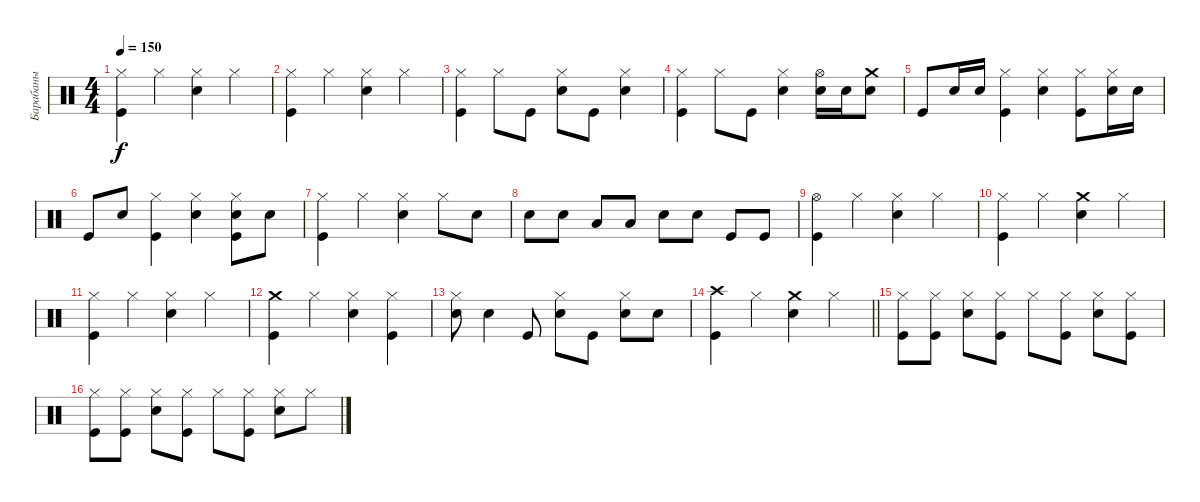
\track ("Барабаны" "Барабаны") {instrument percussion}
\staff {score}
\articulation defaults
\ts (4 4)
\tempo 150
\clef neutral
\ks c
("Hi-Hat (closed)" "Kick (hit)").4{dy f} "Hi-Hat (closed)".4 ("Hi-Hat (closed)" "Electric Snare (hit)").4 "Hi-Hat (closed)".4 |
("Hi-Hat (closed)" "Kick (hit)").4 "Hi-Hat (closed)".4 ("Hi-Hat (closed)" "Electric Snare (hit)").4 "Hi-Hat (closed)".4 |
("Hi-Hat (closed)" "Kick (hit)").4 "Hi-Hat (closed)".8 "Kick (hit)".8 ("Hi-Hat (closed)" "Electric Snare (hit)").8 "Kick (hit)".8 ("Hi-Hat (closed)" "Electric Snare (hit)").4 |
("Hi-Hat (closed)" "Kick (hit)").4 "Hi-Hat (closed)".8 "Kick (hit)".8 ("Hi-Hat (closed)" "Electric Snare (hit)").4 ("Hi-Hat (open)" "Electric Snare (hit)").16 "Electric Snare (hit)".16 ("Crash medium (hit)" "Electric Snare (hit)").8 |
"Kick (hit)".8 "Electric Snare (hit)".16 "Electric Snare (hit)".16 ("Hi-Hat (closed)" "Kick (hit)").4 ("Hi-Hat (closed)" "Electric Snare (hit)").4 ("Hi-Hat (closed)" "Kick (hit)").8 ("Hi-Hat (closed)" "Electric Snare (hit)").16 "Electric Snare (hit)".16 |
"Kick (hit)".8 "Electric Snare (hit)".8 ("Hi-Hat (closed)" "Kick (hit)").4 ("Hi-Hat (closed)" "Electric Snare (hit)").4 ("Hi-Hat (closed)" "Electric Snare (hit)" "Kick (hit)").8 "Electric Snare (hit)".8 |
("Hi-Hat (closed)" "Kick (hit)").4 "Hi-Hat (closed)".4 ("Hi-Hat (closed)" "Electric Snare (hit)").4 "Hi-Hat (closed)".8 "Electric Snare (hit)".8 |
"Electric Snare (hit)".8 "Electric Snare (hit)".8 "Low Tom (hit)".8 "Low Tom (hit)".8 "Electric Snare (hit)".8 "Electric Snare (hit)".8 "Kick (hit)".8 "Kick (hit)".8 |
("Hi-Hat (open)" "Kick (hit)").4 "Hi-Hat (closed)".4 ("Hi-Hat (closed)" "Electric Snare (hit)").4 "Hi-Hat (closed)".4 |
("Hi-Hat (closed)" "Kick (hit)").4 "Hi-Hat (closed)".4 ("Crash medium (hit)" "Electric Snare (hit)").4 "Hi-Hat (closed)".4 |
("Hi-Hat (closed)" "Kick (hit)").4 "Hi-Hat (closed)".4 ("Hi-Hat (closed)" "Electric Snare (hit)").4 "Hi-Hat (closed)".4 |
("Crash medium (hit)" "Kick (hit)").4 "Hi-Hat (closed)".4 ("Hi-Hat (closed)" "Electric Snare (hit)").4 ("Hi-Hat (closed)" "Kick (hit)").4 |
("Hi-Hat (closed)" "Electric Snare (hit)").8 "Electric Snare (hit)".4 "Kick (hit)".8 ("Hi-Hat (closed)" "Electric Snare (hit)").8 "Kick (hit)".8 ("Hi-Hat (closed)" "Electric Snare (hit)").8 "Electric Snare (hit)".8 |
\barLineRight lightlight
("Crash high (hit)" "Kick (hit)").4 "Hi-Hat (closed)".4 ("Crash medium (hit)" "Electric Snare (hit)").4 "Hi-Hat (closed)".4 |
("Hi-Hat (closed)" "Kick (hit)").8 ("Hi-Hat (closed)" "Kick (hit)").8 ("Hi-Hat (closed)" "Electric Snare (hit)").8 ("Hi-Hat (closed)" "Kick (hit)").8 "Hi-Hat (closed)".8 ("Hi-Hat (closed)" "Kick (hit)").8 ("Hi-Hat (closed)" "Electric Snare (hit)").8 ("Hi-Hat (closed)" "Kick (hit)").8 |
("Hi-Hat (closed)" "Kick (hit)").8 ("Hi-Hat (closed)" "Kick (hit)").8 ("Hi-Hat (closed)" "Electric Snare (hit)").8 ("Hi-Hat (closed)" "Kick (hit)").8 "Hi-Hat (closed)".8 ("Hi-Hat (closed)" "Kick (hit)").8 ("Hi-Hat (closed)" "Electric Snare (hit)").8 "Hi-Hat (closed)".8
